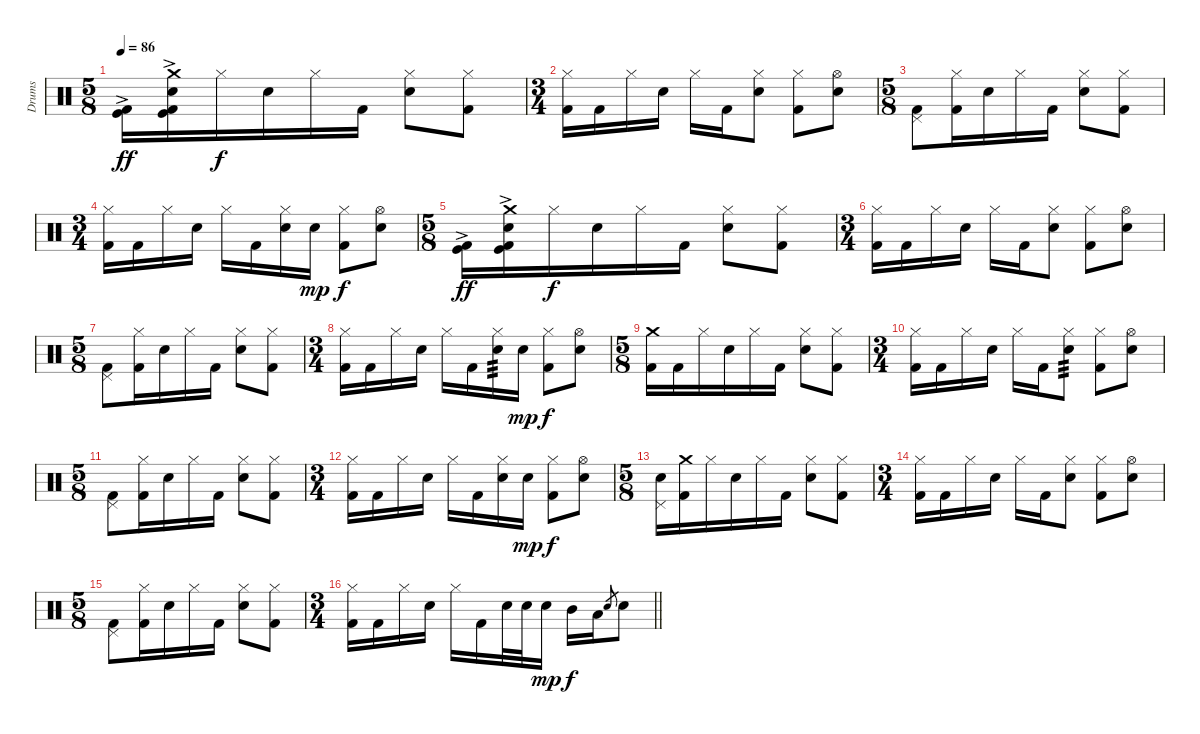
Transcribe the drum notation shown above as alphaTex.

\track ("Drums" "Drums") {instrument percussion}
\staff {score}
\articulation defaults
\ts (5 8)
\tempo 86
\clef neutral
\ks c
("Kick (hit)" "Kick (hit) 2"{ac}).16{dy ff} ("Crash medium (hit)" "Electric Snare (hit)" "Kick (hit)" "Kick (hit) 2"{ac}).16 "Hi-Hat (closed)".16{dy f} "Electric Snare (hit)".16 "Hi-Hat (closed)".16 "Kick (hit) 2".16 ("Hi-Hat (closed)" "Electric Snare (hit)").8 ("Hi-Hat (closed)" "Kick (hit) 2").8 |
\ts (3 4)
("Hi-Hat (closed)" "Kick (hit) 2").16 "Kick (hit) 2".16 "Hi-Hat (closed)".16 "Electric Snare (hit)".16 "Hi-Hat (closed)".16 "Kick (hit) 2".16 ("Hi-Hat (closed)" "Electric Snare (hit)").8 ("Hi-Hat (closed)" "Kick (hit) 2").8 ("Hi-Hat (open)" "Electric Snare (hit)").8 |
\ts (5 8)
("Pedal Hi-Hat (hit)" "Kick (hit) 2").8 ("Hi-Hat (closed)" "Kick (hit) 2").16 "Electric Snare (hit)".16 "Hi-Hat (closed)".16 "Kick (hit) 2".16 ("Hi-Hat (closed)" "Electric Snare (hit)").8 ("Hi-Hat (closed)" "Kick (hit) 2").8 |
\ts (3 4)
("Hi-Hat (closed)" "Kick (hit) 2").16 "Kick (hit) 2".16 "Hi-Hat (closed)".16 "Electric Snare (hit)".16 "Hi-Hat (closed)".16 "Kick (hit) 2".16 ("Hi-Hat (closed)" "Electric Snare (hit)").16 "Electric Snare (hit)".16{dy mp} ("Hi-Hat (closed)" "Kick (hit) 2").8{dy f} ("Hi-Hat (open)" "Electric Snare (hit)").8 |
\ts (5 8)
("Kick (hit)" "Kick (hit) 2"{ac}).16{dy ff} ("Crash medium (hit)" "Electric Snare (hit)" "Kick (hit)" "Kick (hit) 2"{ac}).16 "Hi-Hat (closed)".16{dy f} "Electric Snare (hit)".16 "Hi-Hat (closed)".16 "Kick (hit) 2".16 ("Hi-Hat (closed)" "Electric Snare (hit)").8 ("Hi-Hat (closed)" "Kick (hit) 2").8 |
\ts (3 4)
("Hi-Hat (closed)" "Kick (hit) 2").16 "Kick (hit) 2".16 "Hi-Hat (closed)".16 "Electric Snare (hit)".16 "Hi-Hat (closed)".16 "Kick (hit) 2".16 ("Hi-Hat (closed)" "Electric Snare (hit)").8 ("Hi-Hat (closed)" "Kick (hit) 2").8 ("Hi-Hat (open)" "Electric Snare (hit)").8 |
\ts (5 8)
("Pedal Hi-Hat (hit)" "Kick (hit) 2").8 ("Hi-Hat (closed)" "Kick (hit) 2").16 "Electric Snare (hit)".16 "Hi-Hat (closed)".16 "Kick (hit) 2".16 ("Hi-Hat (closed)" "Electric Snare (hit)").8 ("Hi-Hat (closed)" "Kick (hit) 2").8 |
\ts (3 4)
("Hi-Hat (closed)" "Kick (hit) 2").16 "Kick (hit) 2".16 "Hi-Hat (closed)".16 "Electric Snare (hit)".16 "Hi-Hat (closed)".16 "Kick (hit) 2".16 ("Hi-Hat (closed)" "Electric Snare (hit)").16{tp 3} "Electric Snare (hit)".16{dy mp} ("Hi-Hat (closed)" "Kick (hit) 2").8{dy f} ("Hi-Hat (open)" "Electric Snare (hit)").8 |
\ts (5 8)
("Crash medium (hit)" "Kick (hit) 2").16 "Kick (hit) 2".16 "Hi-Hat (closed)".16 "Electric Snare (hit)".16 "Hi-Hat (closed)".16 "Kick (hit) 2".16 ("Hi-Hat (closed)" "Electric Snare (hit)").8 ("Hi-Hat (closed)" "Kick (hit) 2").8 |
\ts (3 4)
("Hi-Hat (closed)" "Kick (hit) 2").16 "Kick (hit) 2".16 "Hi-Hat (closed)".16 "Electric Snare (hit)".16 "Hi-Hat (closed)".16 "Kick (hit) 2".16 ("Hi-Hat (closed)" "Electric Snare (hit)").8{tp 3} ("Hi-Hat (closed)" "Kick (hit) 2").8 ("Hi-Hat (open)" "Electric Snare (hit)").8 |
\ts (5 8)
("Pedal Hi-Hat (hit)" "Kick (hit) 2").8 ("Hi-Hat (closed)" "Kick (hit) 2").16 "Electric Snare (hit)".16 "Hi-Hat (closed)".16 "Kick (hit) 2".16 ("Hi-Hat (closed)" "Electric Snare (hit)").8 ("Hi-Hat (closed)" "Kick (hit) 2").8 |
\ts (3 4)
("Hi-Hat (closed)" "Kick (hit) 2").16 "Kick (hit) 2".16 "Hi-Hat (closed)".16 "Electric Snare (hit)".16 "Hi-Hat (closed)".16 "Kick (hit) 2".16 ("Hi-Hat (closed)" "Electric Snare (hit)").16 "Electric Snare (hit)".16{dy mp} ("Hi-Hat (closed)" "Kick (hit) 2").8{dy f} ("Hi-Hat (open)" "Electric Snare (hit)").8 |
\ts (5 8)
("Pedal Hi-Hat (hit)" "Electric Snare (hit)").16 ("Crash medium (hit)" "Kick (hit) 2").16 "Hi-Hat (closed)".16 "Electric Snare (hit)".16 "Hi-Hat (closed)".16 "Kick (hit) 2".16 ("Hi-Hat (closed)" "Electric Snare (hit)").8 ("Hi-Hat (closed)" "Kick (hit) 2").8 |
\ts (3 4)
("Hi-Hat (closed)" "Kick (hit) 2").16 "Kick (hit) 2".16 "Hi-Hat (closed)".16 "Electric Snare (hit)".16 "Hi-Hat (closed)".16 "Kick (hit) 2".16 ("Hi-Hat (closed)" "Electric Snare (hit)").8 ("Hi-Hat (closed)" "Kick (hit) 2").8 ("Hi-Hat (open)" "Electric Snare (hit)").8 |
\ts (5 8)
("Pedal Hi-Hat (hit)" "Kick (hit) 2").8 ("Hi-Hat (closed)" "Kick (hit) 2").16 "Electric Snare (hit)".16 "Hi-Hat (closed)".16 "Kick (hit) 2".16 ("Hi-Hat (closed)" "Electric Snare (hit)").8 ("Hi-Hat (closed)" "Kick (hit) 2").8 |
\ts (3 4)
\barLineRight lightlight
("Hi-Hat (closed)" "Kick (hit) 2").16 "Kick (hit) 2".16 "Hi-Hat (closed)".16 "Electric Snare (hit)".16 "Hi-Hat (closed)".16 "Kick (hit) 2".16 "Electric Snare (hit)".32 "Electric Snare (hit)".32 "Electric Snare (hit)".16{dy mp} "Mid Tom (hit)".16{dy f} "Low Tom (hit)".16 "Electric Snare (hit)".8{gr} "Electric Snare (hit)".8
